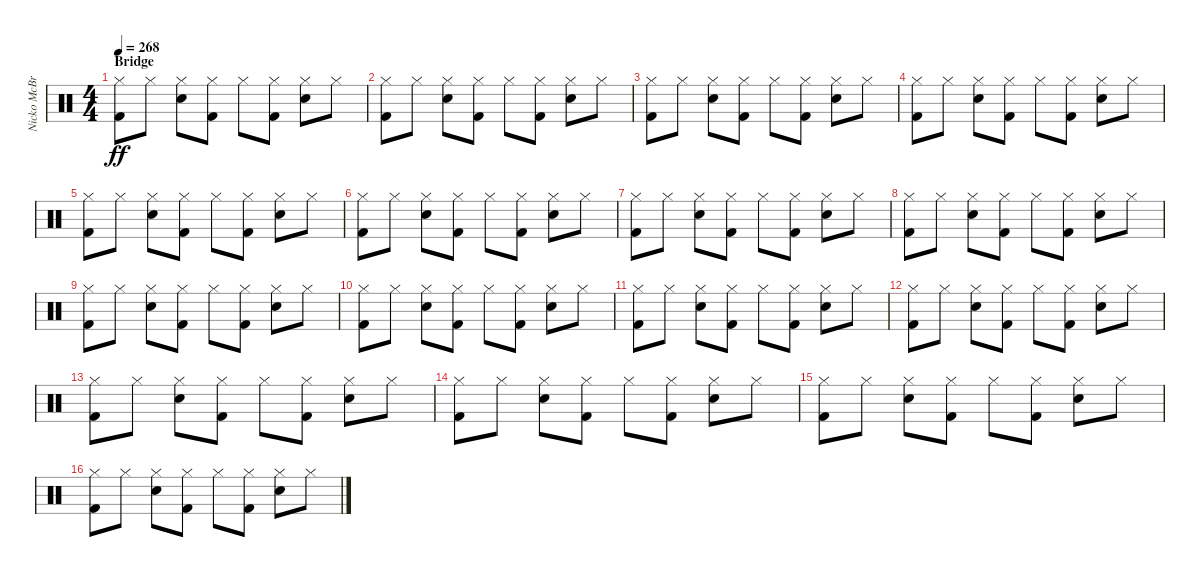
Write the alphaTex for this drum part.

\track ("Nicko McBrain" "Nicko McBr") {instrument percussion}
\staff {score}
\articulation defaults
\ts (4 4)
\section ("" "Bridge")
\tempo 268
\clef neutral
\ks c
("Kick (hit) 2" "Hi-Hat (closed)").8{dy ff} "Hi-Hat (closed)".8 ("Snare (hit) 2" "Hi-Hat (closed)").8 ("Kick (hit) 2" "Hi-Hat (closed)").8 "Hi-Hat (closed)".8 ("Kick (hit) 2" "Hi-Hat (closed)").8 ("Snare (hit) 2" "Hi-Hat (closed)").8 "Hi-Hat (closed)".8 |
("Kick (hit) 2" "Hi-Hat (closed)").8 "Hi-Hat (closed)".8 ("Snare (hit) 2" "Hi-Hat (closed)").8 ("Kick (hit) 2" "Hi-Hat (closed)").8 "Hi-Hat (closed)".8 ("Kick (hit) 2" "Hi-Hat (closed)").8 ("Snare (hit) 2" "Hi-Hat (closed)").8 "Hi-Hat (closed)".8 |
("Kick (hit) 2" "Hi-Hat (closed)").8 "Hi-Hat (closed)".8 ("Snare (hit) 2" "Hi-Hat (closed)").8 ("Kick (hit) 2" "Hi-Hat (closed)").8 "Hi-Hat (closed)".8 ("Kick (hit) 2" "Hi-Hat (closed)").8 ("Snare (hit) 2" "Hi-Hat (closed)").8 "Hi-Hat (closed)".8 |
("Kick (hit) 2" "Hi-Hat (closed)").8 "Hi-Hat (closed)".8 ("Snare (hit) 2" "Hi-Hat (closed)").8 ("Kick (hit) 2" "Hi-Hat (closed)").8 "Hi-Hat (closed)".8 ("Kick (hit) 2" "Hi-Hat (closed)").8 ("Snare (hit) 2" "Hi-Hat (closed)").8 "Hi-Hat (closed)".8 |
("Kick (hit) 2" "Hi-Hat (closed)").8 "Hi-Hat (closed)".8 ("Snare (hit) 2" "Hi-Hat (closed)").8 ("Kick (hit) 2" "Hi-Hat (closed)").8 "Hi-Hat (closed)".8 ("Kick (hit) 2" "Hi-Hat (closed)").8 ("Snare (hit) 2" "Hi-Hat (closed)").8 "Hi-Hat (closed)".8 |
("Kick (hit) 2" "Hi-Hat (closed)").8 "Hi-Hat (closed)".8 ("Snare (hit) 2" "Hi-Hat (closed)").8 ("Kick (hit) 2" "Hi-Hat (closed)").8 "Hi-Hat (closed)".8 ("Kick (hit) 2" "Hi-Hat (closed)").8 ("Snare (hit) 2" "Hi-Hat (closed)").8 "Hi-Hat (closed)".8 |
("Kick (hit) 2" "Hi-Hat (closed)").8 "Hi-Hat (closed)".8 ("Snare (hit) 2" "Hi-Hat (closed)").8 ("Kick (hit) 2" "Hi-Hat (closed)").8 "Hi-Hat (closed)".8 ("Kick (hit) 2" "Hi-Hat (closed)").8 ("Snare (hit) 2" "Hi-Hat (closed)").8 "Hi-Hat (closed)".8 |
("Kick (hit) 2" "Hi-Hat (closed)").8 "Hi-Hat (closed)".8 ("Snare (hit) 2" "Hi-Hat (closed)").8 ("Kick (hit) 2" "Hi-Hat (closed)").8 "Hi-Hat (closed)".8 ("Kick (hit) 2" "Hi-Hat (closed)").8 ("Snare (hit) 2" "Hi-Hat (closed)").8 "Hi-Hat (closed)".8 |
("Kick (hit) 2" "Hi-Hat (closed)").8 "Hi-Hat (closed)".8 ("Snare (hit) 2" "Hi-Hat (closed)").8 ("Kick (hit) 2" "Hi-Hat (closed)").8 "Hi-Hat (closed)".8 ("Kick (hit) 2" "Hi-Hat (closed)").8 ("Snare (hit) 2" "Hi-Hat (closed)").8 "Hi-Hat (closed)".8 |
("Kick (hit) 2" "Hi-Hat (closed)").8 "Hi-Hat (closed)".8 ("Snare (hit) 2" "Hi-Hat (closed)").8 ("Kick (hit) 2" "Hi-Hat (closed)").8 "Hi-Hat (closed)".8 ("Kick (hit) 2" "Hi-Hat (closed)").8 ("Snare (hit) 2" "Hi-Hat (closed)").8 "Hi-Hat (closed)".8 |
("Kick (hit) 2" "Hi-Hat (closed)").8 "Hi-Hat (closed)".8 ("Snare (hit) 2" "Hi-Hat (closed)").8 ("Kick (hit) 2" "Hi-Hat (closed)").8 "Hi-Hat (closed)".8 ("Kick (hit) 2" "Hi-Hat (closed)").8 ("Snare (hit) 2" "Hi-Hat (closed)").8 "Hi-Hat (closed)".8 |
("Kick (hit) 2" "Hi-Hat (closed)").8 "Hi-Hat (closed)".8 ("Snare (hit) 2" "Hi-Hat (closed)").8 ("Kick (hit) 2" "Hi-Hat (closed)").8 "Hi-Hat (closed)".8 ("Kick (hit) 2" "Hi-Hat (closed)").8 ("Snare (hit) 2" "Hi-Hat (closed)").8 "Hi-Hat (closed)".8 |
("Kick (hit) 2" "Hi-Hat (closed)").8 "Hi-Hat (closed)".8 ("Snare (hit) 2" "Hi-Hat (closed)").8 ("Kick (hit) 2" "Hi-Hat (closed)").8 "Hi-Hat (closed)".8 ("Kick (hit) 2" "Hi-Hat (closed)").8 ("Snare (hit) 2" "Hi-Hat (closed)").8 "Hi-Hat (closed)".8 |
("Kick (hit) 2" "Hi-Hat (closed)").8 "Hi-Hat (closed)".8 ("Snare (hit) 2" "Hi-Hat (closed)").8 ("Kick (hit) 2" "Hi-Hat (closed)").8 "Hi-Hat (closed)".8 ("Kick (hit) 2" "Hi-Hat (closed)").8 ("Snare (hit) 2" "Hi-Hat (closed)").8 "Hi-Hat (closed)".8 |
("Kick (hit) 2" "Hi-Hat (closed)").8 "Hi-Hat (closed)".8 ("Snare (hit) 2" "Hi-Hat (closed)").8 ("Kick (hit) 2" "Hi-Hat (closed)").8 "Hi-Hat (closed)".8 ("Kick (hit) 2" "Hi-Hat (closed)").8 ("Snare (hit) 2" "Hi-Hat (closed)").8 "Hi-Hat (closed)".8 |
("Kick (hit) 2" "Hi-Hat (closed)").8 "Hi-Hat (closed)".8 ("Snare (hit) 2" "Hi-Hat (closed)").8 ("Kick (hit) 2" "Hi-Hat (closed)").8 "Hi-Hat (closed)".8 ("Kick (hit) 2" "Hi-Hat (closed)").8 ("Snare (hit) 2" "Hi-Hat (closed)").8 "Hi-Hat (closed)".8
